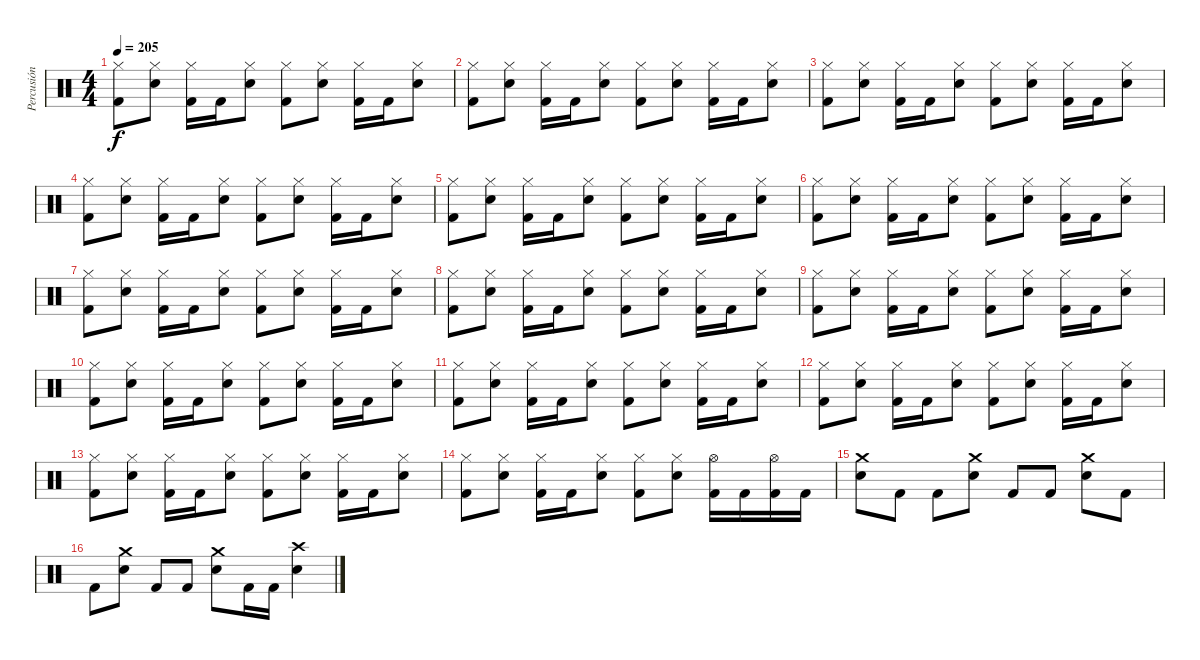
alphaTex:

\track ("Percusión" "Percusión") {instrument percussion}
\staff {score}
\articulation defaults
\ts (4 4)
\tempo 205
\clef neutral
\ks c
("Hi-Hat (closed)" "Kick (hit) 2").8{dy f} ("Hi-Hat (closed)" "Snare (hit) 2").8 ("Hi-Hat (closed)" "Kick (hit) 2").16 "Kick (hit) 2".16 ("Hi-Hat (closed)" "Snare (hit) 2").8 ("Hi-Hat (closed)" "Kick (hit) 2").8 ("Hi-Hat (closed)" "Snare (hit) 2").8 ("Hi-Hat (closed)" "Kick (hit) 2").16 "Kick (hit) 2".16 ("Hi-Hat (closed)" "Snare (hit) 2").8 |
("Hi-Hat (closed)" "Kick (hit) 2").8 ("Hi-Hat (closed)" "Snare (hit) 2").8 ("Hi-Hat (closed)" "Kick (hit) 2").16 "Kick (hit) 2".16 ("Hi-Hat (closed)" "Snare (hit) 2").8 ("Hi-Hat (closed)" "Kick (hit) 2").8 ("Hi-Hat (closed)" "Snare (hit) 2").8 ("Hi-Hat (closed)" "Kick (hit) 2").16 "Kick (hit) 2".16 ("Hi-Hat (closed)" "Snare (hit) 2").8 |
("Hi-Hat (closed)" "Kick (hit) 2").8 ("Hi-Hat (closed)" "Snare (hit) 2").8 ("Hi-Hat (closed)" "Kick (hit) 2").16 "Kick (hit) 2".16 ("Hi-Hat (closed)" "Snare (hit) 2").8 ("Hi-Hat (closed)" "Kick (hit) 2").8 ("Hi-Hat (closed)" "Snare (hit) 2").8 ("Hi-Hat (closed)" "Kick (hit) 2").16 "Kick (hit) 2".16 ("Hi-Hat (closed)" "Snare (hit) 2").8 |
("Hi-Hat (closed)" "Kick (hit) 2").8 ("Hi-Hat (closed)" "Snare (hit) 2").8 ("Hi-Hat (closed)" "Kick (hit) 2").16 "Kick (hit) 2".16 ("Hi-Hat (closed)" "Snare (hit) 2").8 ("Hi-Hat (closed)" "Kick (hit) 2").8 ("Hi-Hat (closed)" "Snare (hit) 2").8 ("Hi-Hat (closed)" "Kick (hit) 2").16 "Kick (hit) 2".16 ("Hi-Hat (closed)" "Snare (hit) 2").8 |
("Hi-Hat (closed)" "Kick (hit) 2").8 ("Hi-Hat (closed)" "Snare (hit) 2").8 ("Hi-Hat (closed)" "Kick (hit) 2").16 "Kick (hit) 2".16 ("Hi-Hat (closed)" "Snare (hit) 2").8 ("Hi-Hat (closed)" "Kick (hit) 2").8 ("Hi-Hat (closed)" "Snare (hit) 2").8 ("Hi-Hat (closed)" "Kick (hit) 2").16 "Kick (hit) 2".16 ("Hi-Hat (closed)" "Snare (hit) 2").8 |
("Hi-Hat (closed)" "Kick (hit) 2").8 ("Hi-Hat (closed)" "Snare (hit) 2").8 ("Hi-Hat (closed)" "Kick (hit) 2").16 "Kick (hit) 2".16 ("Hi-Hat (closed)" "Snare (hit) 2").8 ("Hi-Hat (closed)" "Kick (hit) 2").8 ("Hi-Hat (closed)" "Snare (hit) 2").8 ("Hi-Hat (closed)" "Kick (hit) 2").16 "Kick (hit) 2".16 ("Hi-Hat (closed)" "Snare (hit) 2").8 |
("Hi-Hat (closed)" "Kick (hit) 2").8 ("Hi-Hat (closed)" "Snare (hit) 2").8 ("Hi-Hat (closed)" "Kick (hit) 2").16 "Kick (hit) 2".16 ("Hi-Hat (closed)" "Snare (hit) 2").8 ("Hi-Hat (closed)" "Kick (hit) 2").8 ("Hi-Hat (closed)" "Snare (hit) 2").8 ("Hi-Hat (closed)" "Kick (hit) 2").16 "Kick (hit) 2".16 ("Hi-Hat (closed)" "Snare (hit) 2").8 |
("Hi-Hat (closed)" "Kick (hit) 2").8 ("Hi-Hat (closed)" "Snare (hit) 2").8 ("Hi-Hat (closed)" "Kick (hit) 2").16 "Kick (hit) 2".16 ("Hi-Hat (closed)" "Snare (hit) 2").8 ("Hi-Hat (closed)" "Kick (hit) 2").8 ("Hi-Hat (closed)" "Snare (hit) 2").8 ("Hi-Hat (closed)" "Kick (hit) 2").16 "Kick (hit) 2".16 ("Hi-Hat (closed)" "Snare (hit) 2").8 |
("Hi-Hat (closed)" "Kick (hit) 2").8 ("Hi-Hat (closed)" "Snare (hit) 2").8 ("Hi-Hat (closed)" "Kick (hit) 2").16 "Kick (hit) 2".16 ("Hi-Hat (closed)" "Snare (hit) 2").8 ("Hi-Hat (closed)" "Kick (hit) 2").8 ("Hi-Hat (closed)" "Snare (hit) 2").8 ("Hi-Hat (closed)" "Kick (hit) 2").16 "Kick (hit) 2".16 ("Hi-Hat (closed)" "Snare (hit) 2").8 |
("Hi-Hat (closed)" "Kick (hit) 2").8 ("Hi-Hat (closed)" "Snare (hit) 2").8 ("Hi-Hat (closed)" "Kick (hit) 2").16 "Kick (hit) 2".16 ("Hi-Hat (closed)" "Snare (hit) 2").8 ("Hi-Hat (closed)" "Kick (hit) 2").8 ("Hi-Hat (closed)" "Snare (hit) 2").8 ("Hi-Hat (closed)" "Kick (hit) 2").16 "Kick (hit) 2".16 ("Hi-Hat (closed)" "Snare (hit) 2").8 |
("Hi-Hat (closed)" "Kick (hit) 2").8 ("Hi-Hat (closed)" "Snare (hit) 2").8 ("Hi-Hat (closed)" "Kick (hit) 2").16 "Kick (hit) 2".16 ("Hi-Hat (closed)" "Snare (hit) 2").8 ("Hi-Hat (closed)" "Kick (hit) 2").8 ("Hi-Hat (closed)" "Snare (hit) 2").8 ("Hi-Hat (closed)" "Kick (hit) 2").16 "Kick (hit) 2".16 ("Hi-Hat (closed)" "Snare (hit) 2").8 |
("Hi-Hat (closed)" "Kick (hit) 2").8 ("Hi-Hat (closed)" "Snare (hit) 2").8 ("Hi-Hat (closed)" "Kick (hit) 2").16 "Kick (hit) 2".16 ("Hi-Hat (closed)" "Snare (hit) 2").8 ("Hi-Hat (closed)" "Kick (hit) 2").8 ("Hi-Hat (closed)" "Snare (hit) 2").8 ("Hi-Hat (closed)" "Kick (hit) 2").16 "Kick (hit) 2".16 ("Hi-Hat (closed)" "Snare (hit) 2").8 |
("Hi-Hat (closed)" "Kick (hit) 2").8 ("Hi-Hat (closed)" "Snare (hit) 2").8 ("Hi-Hat (closed)" "Kick (hit) 2").16 "Kick (hit) 2".16 ("Hi-Hat (closed)" "Snare (hit) 2").8 ("Hi-Hat (closed)" "Kick (hit) 2").8 ("Hi-Hat (closed)" "Snare (hit) 2").8 ("Hi-Hat (closed)" "Kick (hit) 2").16 "Kick (hit) 2".16 ("Hi-Hat (closed)" "Snare (hit) 2").8 |
("Hi-Hat (closed)" "Kick (hit) 2").8 ("Hi-Hat (closed)" "Snare (hit) 2").8 ("Hi-Hat (closed)" "Kick (hit) 2").16 "Kick (hit) 2".16 ("Hi-Hat (closed)" "Snare (hit) 2").8 ("Hi-Hat (closed)" "Kick (hit) 2").8 ("Hi-Hat (closed)" "Snare (hit) 2").8 ("Hi-Hat (open)" "Kick (hit) 2").16 "Kick (hit) 2".16 ("Hi-Hat (open)" "Kick (hit) 2").16 "Kick (hit) 2".16 |
("Crash medium (hit)" "Snare (hit) 2").8 "Kick (hit) 2".8 "Kick (hit) 2".8 ("Crash medium (hit)" "Snare (hit) 2").8 "Kick (hit) 2".8 "Kick (hit) 2".8 ("Crash medium (hit)" "Snare (hit) 2").8 "Kick (hit) 2".8 |
"Kick (hit) 2".8 ("Crash medium (hit)" "Snare (hit) 2").8 "Kick (hit) 2".8 "Kick (hit) 2".8 ("Crash medium (hit)" "Snare (hit) 2").8 "Kick (hit) 2".16 "Kick (hit) 2".16 ("Snare (hit) 2" "Crash high (hit)").4
